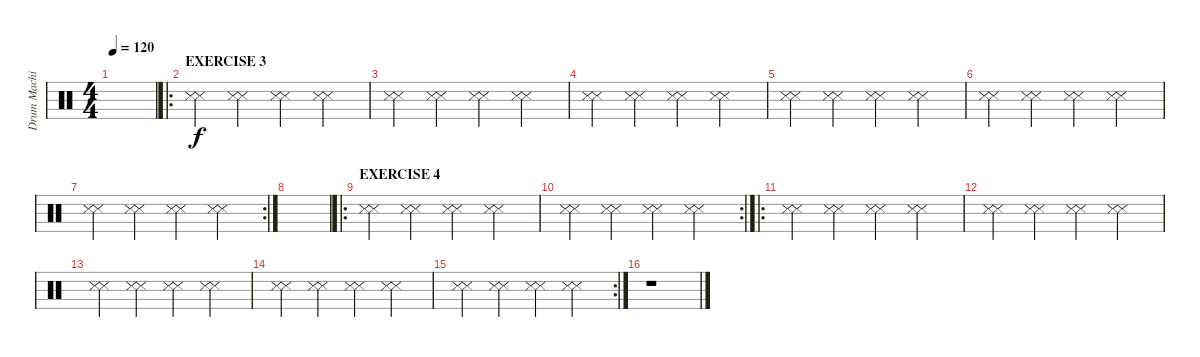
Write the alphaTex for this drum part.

\track ("Drum Machine" "Drum Machi") {instrument percussion}
\staff {score}
\articulation defaults
\ts (4 4)
\tempo 120
\clef neutral
\ks c
|
\ro
\section ("" "EXERCISE 3")
("Snare (side stick) 3" "Snare (side stick) 3").4 ("Snare (side stick) 3" "Snare (side stick) 3").4 ("Snare (side stick) 3" "Snare (side stick) 3").4 ("Snare (side stick) 3" "Snare (side stick) 3").4 |
("Snare (side stick) 3" "Snare (side stick) 3").4 ("Snare (side stick) 3" "Snare (side stick) 3").4 ("Snare (side stick) 3" "Snare (side stick) 3").4 ("Snare (side stick) 3" "Snare (side stick) 3").4 |
("Snare (side stick) 3" "Snare (side stick) 3").4 ("Snare (side stick) 3" "Snare (side stick) 3").4 ("Snare (side stick) 3" "Snare (side stick) 3").4 ("Snare (side stick) 3" "Snare (side stick) 3").4 |
("Snare (side stick) 3" "Snare (side stick) 3").4 ("Snare (side stick) 3" "Snare (side stick) 3").4 ("Snare (side stick) 3" "Snare (side stick) 3").4 ("Snare (side stick) 3" "Snare (side stick) 3").4 |
("Snare (side stick) 3" "Snare (side stick) 3").4 ("Snare (side stick) 3" "Snare (side stick) 3").4 ("Snare (side stick) 3" "Snare (side stick) 3").4 ("Snare (side stick) 3" "Snare (side stick) 3").4 |
\rc 2
("Snare (side stick) 3" "Snare (side stick) 3").4 ("Snare (side stick) 3" "Snare (side stick) 3").4 ("Snare (side stick) 3" "Snare (side stick) 3").4 ("Snare (side stick) 3" "Snare (side stick) 3").4 |
|
\ro
\section ("" "EXERCISE 4")
("Snare (side stick) 3" "Snare (side stick) 3").4 ("Snare (side stick) 3" "Snare (side stick) 3").4 ("Snare (side stick) 3" "Snare (side stick) 3").4 ("Snare (side stick) 3" "Snare (side stick) 3").4 |
\rc 2
("Snare (side stick) 3" "Snare (side stick) 3").4 ("Snare (side stick) 3" "Snare (side stick) 3").4 ("Snare (side stick) 3" "Snare (side stick) 3").4 ("Snare (side stick) 3" "Snare (side stick) 3").4 |
\ro
("Snare (side stick) 3" "Snare (side stick) 3").4 ("Snare (side stick) 3" "Snare (side stick) 3").4 ("Snare (side stick) 3" "Snare (side stick) 3").4 ("Snare (side stick) 3" "Snare (side stick) 3").4 |
("Snare (side stick) 3" "Snare (side stick) 3").4 ("Snare (side stick) 3" "Snare (side stick) 3").4 ("Snare (side stick) 3" "Snare (side stick) 3").4 ("Snare (side stick) 3" "Snare (side stick) 3").4 |
("Snare (side stick) 3" "Snare (side stick) 3").4 ("Snare (side stick) 3" "Snare (side stick) 3").4 ("Snare (side stick) 3" "Snare (side stick) 3").4 ("Snare (side stick) 3" "Snare (side stick) 3").4 |
("Snare (side stick) 3" "Snare (side stick) 3").4 ("Snare (side stick) 3" "Snare (side stick) 3").4 ("Snare (side stick) 3" "Snare (side stick) 3").4 ("Snare (side stick) 3" "Snare (side stick) 3").4 |
\rc 2
("Snare (side stick) 3" "Snare (side stick) 3").4 ("Snare (side stick) 3" "Snare (side stick) 3").4 ("Snare (side stick) 3" "Snare (side stick) 3").4 ("Snare (side stick) 3" "Snare (side stick) 3").4 |
r.1
